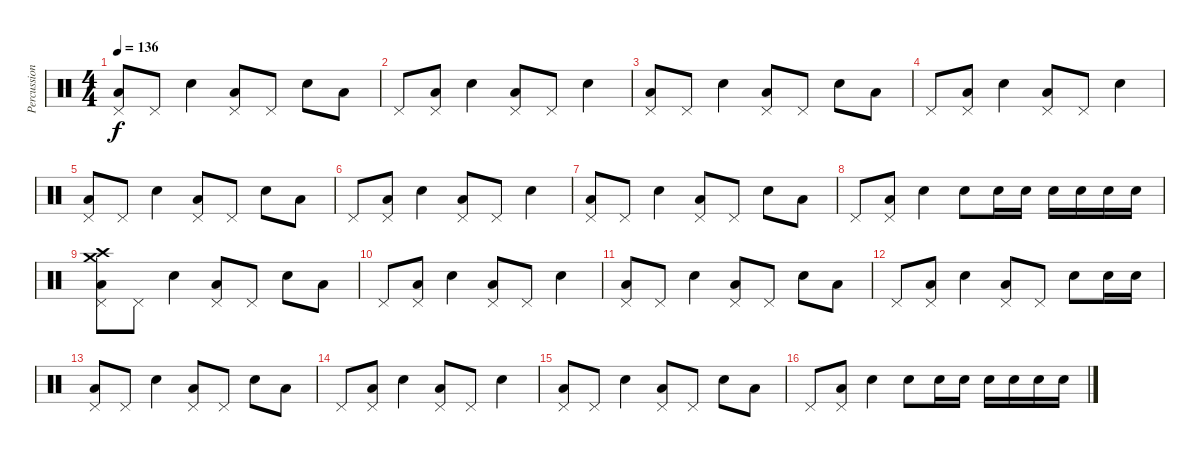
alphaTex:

\track ("Percussions" "Percussion") {instrument percussion}
\staff {score}
\articulation defaults
\ts (4 4)
\tempo 136
\clef neutral
\ks c
("Low Floor Tom (hit)" "Pedal Hi-Hat (hit)").8{dy f} "Pedal Hi-Hat (hit)".8 "Snare (hit) 2".4 ("Low Floor Tom (hit)" "Pedal Hi-Hat (hit)").8 "Pedal Hi-Hat (hit)".8 "Snare (hit) 2".8 "Low Floor Tom (hit)".8 |
"Pedal Hi-Hat (hit)".8 ("Low Floor Tom (hit)" "Pedal Hi-Hat (hit)").8 "Snare (hit) 2".4 ("Low Floor Tom (hit)" "Pedal Hi-Hat (hit)").8 "Pedal Hi-Hat (hit)".8 "Snare (hit) 2".4 |
("Low Floor Tom (hit)" "Pedal Hi-Hat (hit)").8 "Pedal Hi-Hat (hit)".8 "Snare (hit) 2".4 ("Low Floor Tom (hit)" "Pedal Hi-Hat (hit)").8 "Pedal Hi-Hat (hit)".8 "Snare (hit) 2".8 "Low Floor Tom (hit)".8 |
"Pedal Hi-Hat (hit)".8 ("Low Floor Tom (hit)" "Pedal Hi-Hat (hit)").8 "Snare (hit) 2".4 ("Low Floor Tom (hit)" "Pedal Hi-Hat (hit)").8 "Pedal Hi-Hat (hit)".8 "Snare (hit) 2".4 |
("Low Floor Tom (hit)" "Pedal Hi-Hat (hit)").8 "Pedal Hi-Hat (hit)".8 "Snare (hit) 2".4 ("Low Floor Tom (hit)" "Pedal Hi-Hat (hit)").8 "Pedal Hi-Hat (hit)".8 "Snare (hit) 2".8 "Low Floor Tom (hit)".8 |
"Pedal Hi-Hat (hit)".8 ("Low Floor Tom (hit)" "Pedal Hi-Hat (hit)").8 "Snare (hit) 2".4 ("Low Floor Tom (hit)" "Pedal Hi-Hat (hit)").8 "Pedal Hi-Hat (hit)".8 "Snare (hit) 2".4 |
("Low Floor Tom (hit)" "Pedal Hi-Hat (hit)").8 "Pedal Hi-Hat (hit)".8 "Snare (hit) 2".4 ("Low Floor Tom (hit)" "Pedal Hi-Hat (hit)").8 "Pedal Hi-Hat (hit)".8 "Snare (hit) 2".8 "Low Floor Tom (hit)".8 |
"Pedal Hi-Hat (hit)".8 ("Low Floor Tom (hit)" "Pedal Hi-Hat (hit)").8 "Snare (hit) 2".4 "Snare (hit) 2".8 "Snare (hit) 2".16 "Snare (hit) 2".16 "Snare (hit) 2".16 "Snare (hit) 2".16 "Snare (hit) 2".16 "Snare (hit) 2".16 |
("Low Floor Tom (hit)" "Pedal Hi-Hat (hit)" "Crash high (hit)" "Crash medium (hit)").8 "Pedal Hi-Hat (hit)".8 "Snare (hit) 2".4 ("Low Floor Tom (hit)" "Pedal Hi-Hat (hit)").8 "Pedal Hi-Hat (hit)".8 "Snare (hit) 2".8 "Low Floor Tom (hit)".8 |
"Pedal Hi-Hat (hit)".8 ("Low Floor Tom (hit)" "Pedal Hi-Hat (hit)").8 "Snare (hit) 2".4 ("Low Floor Tom (hit)" "Pedal Hi-Hat (hit)").8 "Pedal Hi-Hat (hit)".8 "Snare (hit) 2".4 |
("Low Floor Tom (hit)" "Pedal Hi-Hat (hit)").8 "Pedal Hi-Hat (hit)".8 "Snare (hit) 2".4 ("Low Floor Tom (hit)" "Pedal Hi-Hat (hit)").8 "Pedal Hi-Hat (hit)".8 "Snare (hit) 2".8 "Low Floor Tom (hit)".8 |
"Pedal Hi-Hat (hit)".8 ("Low Floor Tom (hit)" "Pedal Hi-Hat (hit)").8 "Snare (hit) 2".4 ("Low Floor Tom (hit)" "Pedal Hi-Hat (hit)").8 "Pedal Hi-Hat (hit)".8 "Snare (hit) 2".8 "Snare (hit) 2".16 "Snare (hit) 2".16 |
("Low Floor Tom (hit)" "Pedal Hi-Hat (hit)").8 "Pedal Hi-Hat (hit)".8 "Snare (hit) 2".4 ("Low Floor Tom (hit)" "Pedal Hi-Hat (hit)").8 "Pedal Hi-Hat (hit)".8 "Snare (hit) 2".8 "Low Floor Tom (hit)".8 |
"Pedal Hi-Hat (hit)".8 ("Low Floor Tom (hit)" "Pedal Hi-Hat (hit)").8 "Snare (hit) 2".4 ("Low Floor Tom (hit)" "Pedal Hi-Hat (hit)").8 "Pedal Hi-Hat (hit)".8 "Snare (hit) 2".4 |
("Low Floor Tom (hit)" "Pedal Hi-Hat (hit)").8 "Pedal Hi-Hat (hit)".8 "Snare (hit) 2".4 ("Low Floor Tom (hit)" "Pedal Hi-Hat (hit)").8 "Pedal Hi-Hat (hit)".8 "Snare (hit) 2".8 "Low Floor Tom (hit)".8 |
"Pedal Hi-Hat (hit)".8 ("Low Floor Tom (hit)" "Pedal Hi-Hat (hit)").8 "Snare (hit) 2".4 "Snare (hit) 2".8 "Snare (hit) 2".16 "Snare (hit) 2".16 "Snare (hit) 2".16 "Snare (hit) 2".16 "Snare (hit) 2".16 "Snare (hit) 2".16
